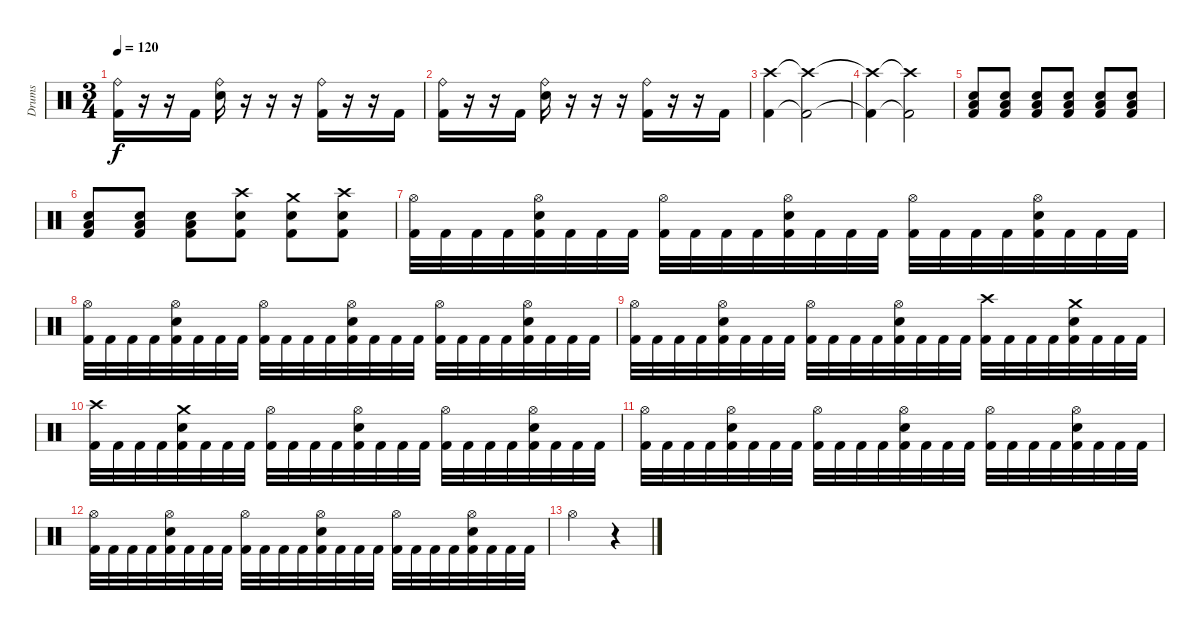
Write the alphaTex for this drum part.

\track ("Drums" "Drums") {instrument percussion}
\staff {score}
\articulation defaults
\ts (3 4)
\tempo 120
\clef neutral
\ks c
("Kick (hit) 2" "Ride (bell)").16{dy f} r.16 r.16 "Kick (hit) 2".16 ("Electric Snare (hit)" "Ride (bell)").16 r.16 r.16 r.16 ("Kick (hit) 2" "Ride (bell)").16 r.16 r.16 "Kick (hit) 2".16 |
("Kick (hit) 2" "Ride (bell)").16 r.16 r.16 "Kick (hit) 2".16 ("Electric Snare (hit)" "Ride (bell)").16 r.16 r.16 r.16 ("Kick (hit) 2" "Ride (bell)").16 r.16 r.16 "Kick (hit) 2".16 |
("Crash high (hit)" "Kick (hit) 2").4 ("Crash high (hit)"{t} "Kick (hit) 2"{t}).2 |
("Crash high (hit)"{t} "Kick (hit) 2"{t}).4 ("Crash high (hit)"{t} "Kick (hit) 2"{t}).2 |
("Low Floor Tom (hit)" "Electric Snare (hit)" "Kick (hit) 2").8 ("Low Floor Tom (hit)" "Electric Snare (hit)" "Kick (hit) 2").8 ("Low Floor Tom (hit)" "Electric Snare (hit)" "Kick (hit) 2").8 ("Low Floor Tom (hit)" "Electric Snare (hit)" "Kick (hit) 2").8 ("Low Floor Tom (hit)" "Electric Snare (hit)" "Kick (hit) 2").8 ("Low Floor Tom (hit)" "Electric Snare (hit)" "Kick (hit) 2").8 |
("Low Floor Tom (hit)" "Electric Snare (hit)" "Kick (hit) 2").8 ("Low Floor Tom (hit)" "Electric Snare (hit)" "Kick (hit) 2").8 ("Low Floor Tom (hit)" "Electric Snare (hit)" "Kick (hit) 2").8 ("Crash high (hit)" "Electric Snare (hit)" "Kick (hit) 2").8 ("Crash medium (hit)" "Electric Snare (hit)" "Kick (hit) 2").8 ("Crash high (hit)" "Electric Snare (hit)" "Kick (hit) 2").8 |
("Hi-Hat (open)" "Kick (hit) 2").32 "Kick (hit) 2".32 "Kick (hit) 2".32 "Kick (hit) 2".32 ("Hi-Hat (open)" "Electric Snare (hit)" "Kick (hit) 2").32 "Kick (hit) 2".32 "Kick (hit) 2".32 "Kick (hit) 2".32 ("Hi-Hat (open)" "Kick (hit) 2").32 "Kick (hit) 2".32 "Kick (hit) 2".32 "Kick (hit) 2".32 ("Hi-Hat (open)" "Electric Snare (hit)" "Kick (hit) 2").32 "Kick (hit) 2".32 "Kick (hit) 2".32 "Kick (hit) 2".32 ("Hi-Hat (open)" "Kick (hit) 2").32 "Kick (hit) 2".32 "Kick (hit) 2".32 "Kick (hit) 2".32 ("Hi-Hat (open)" "Electric Snare (hit)" "Kick (hit) 2").32 "Kick (hit) 2".32 "Kick (hit) 2".32 "Kick (hit) 2".32 |
("Hi-Hat (open)" "Kick (hit) 2").32 "Kick (hit) 2".32 "Kick (hit) 2".32 "Kick (hit) 2".32 ("Hi-Hat (open)" "Electric Snare (hit)" "Kick (hit) 2").32 "Kick (hit) 2".32 "Kick (hit) 2".32 "Kick (hit) 2".32 ("Hi-Hat (open)" "Kick (hit) 2").32 "Kick (hit) 2".32 "Kick (hit) 2".32 "Kick (hit) 2".32 ("Hi-Hat (open)" "Electric Snare (hit)" "Kick (hit) 2").32 "Kick (hit) 2".32 "Kick (hit) 2".32 "Kick (hit) 2".32 ("Hi-Hat (open)" "Kick (hit) 2").32 "Kick (hit) 2".32 "Kick (hit) 2".32 "Kick (hit) 2".32 ("Hi-Hat (open)" "Electric Snare (hit)" "Kick (hit) 2").32 "Kick (hit) 2".32 "Kick (hit) 2".32 "Kick (hit) 2".32 |
("Hi-Hat (open)" "Kick (hit) 2").32 "Kick (hit) 2".32 "Kick (hit) 2".32 "Kick (hit) 2".32 ("Hi-Hat (open)" "Electric Snare (hit)" "Kick (hit) 2").32 "Kick (hit) 2".32 "Kick (hit) 2".32 "Kick (hit) 2".32 ("Hi-Hat (open)" "Kick (hit) 2").32 "Kick (hit) 2".32 "Kick (hit) 2".32 "Kick (hit) 2".32 ("Hi-Hat (open)" "Electric Snare (hit)" "Kick (hit) 2").32 "Kick (hit) 2".32 "Kick (hit) 2".32 "Kick (hit) 2".32 ("Crash high (hit)" "Kick (hit) 2").32 "Kick (hit) 2".32 "Kick (hit) 2".32 "Kick (hit) 2".32 ("Crash medium (hit)" "Electric Snare (hit)" "Kick (hit) 2").32 "Kick (hit) 2".32 "Kick (hit) 2".32 "Kick (hit) 2".32 |
("Crash high (hit)" "Kick (hit) 2").32 "Kick (hit) 2".32 "Kick (hit) 2".32 "Kick (hit) 2".32 ("Crash medium (hit)" "Electric Snare (hit)" "Kick (hit) 2").32 "Kick (hit) 2".32 "Kick (hit) 2".32 "Kick (hit) 2".32 ("Hi-Hat (open)" "Kick (hit) 2").32 "Kick (hit) 2".32 "Kick (hit) 2".32 "Kick (hit) 2".32 ("Hi-Hat (open)" "Electric Snare (hit)" "Kick (hit) 2").32 "Kick (hit) 2".32 "Kick (hit) 2".32 "Kick (hit) 2".32 ("Hi-Hat (open)" "Kick (hit) 2").32 "Kick (hit) 2".32 "Kick (hit) 2".32 "Kick (hit) 2".32 ("Hi-Hat (open)" "Electric Snare (hit)" "Kick (hit) 2").32 "Kick (hit) 2".32 "Kick (hit) 2".32 "Kick (hit) 2".32 |
("Hi-Hat (open)" "Kick (hit) 2").32 "Kick (hit) 2".32 "Kick (hit) 2".32 "Kick (hit) 2".32 ("Hi-Hat (open)" "Electric Snare (hit)" "Kick (hit) 2").32 "Kick (hit) 2".32 "Kick (hit) 2".32 "Kick (hit) 2".32 ("Hi-Hat (open)" "Kick (hit) 2").32 "Kick (hit) 2".32 "Kick (hit) 2".32 "Kick (hit) 2".32 ("Hi-Hat (open)" "Electric Snare (hit)" "Kick (hit) 2").32 "Kick (hit) 2".32 "Kick (hit) 2".32 "Kick (hit) 2".32 ("Hi-Hat (open)" "Kick (hit) 2").32 "Kick (hit) 2".32 "Kick (hit) 2".32 "Kick (hit) 2".32 ("Hi-Hat (open)" "Electric Snare (hit)" "Kick (hit) 2").32 "Kick (hit) 2".32 "Kick (hit) 2".32 "Kick (hit) 2".32 |
("Hi-Hat (open)" "Kick (hit) 2").32 "Kick (hit) 2".32 "Kick (hit) 2".32 "Kick (hit) 2".32 ("Hi-Hat (open)" "Electric Snare (hit)" "Kick (hit) 2").32 "Kick (hit) 2".32 "Kick (hit) 2".32 "Kick (hit) 2".32 ("Hi-Hat (open)" "Kick (hit) 2").32 "Kick (hit) 2".32 "Kick (hit) 2".32 "Kick (hit) 2".32 ("Hi-Hat (open)" "Electric Snare (hit)" "Kick (hit) 2").32 "Kick (hit) 2".32 "Kick (hit) 2".32 "Kick (hit) 2".32 ("Hi-Hat (open)" "Kick (hit) 2").32 "Kick (hit) 2".32 "Kick (hit) 2".32 "Kick (hit) 2".32 ("Hi-Hat (open)" "Electric Snare (hit)" "Kick (hit) 2").32 "Kick (hit) 2".32 "Kick (hit) 2".32 "Kick (hit) 2".32 |
"Hi-Hat (open)".2 r.4
